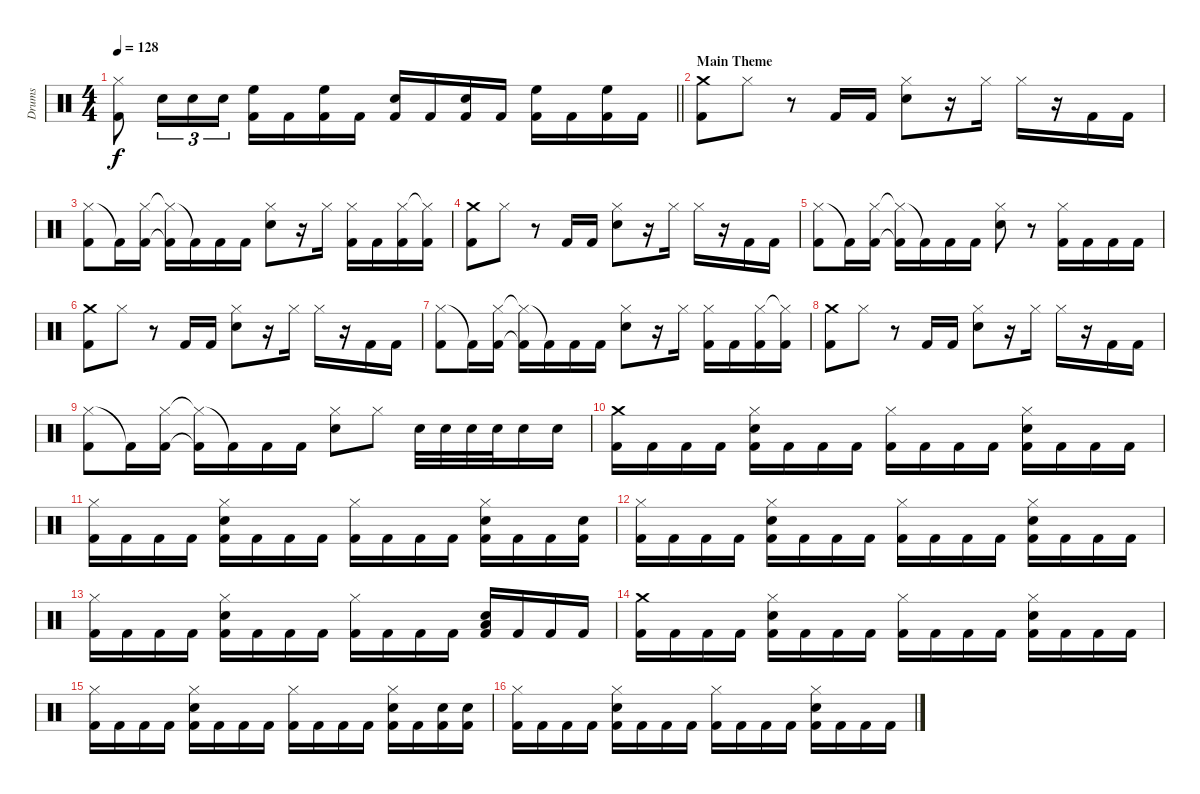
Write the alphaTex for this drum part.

\track ("Drums" "Drums") {instrument percussion}
\staff {score}
\articulation defaults
\ts (4 4)
\tempo 128
\clef neutral
\barLineRight lightlight
\ks c
("Hi-Hat (closed)" "Kick (hit) 2").8{dy f} "Snare (hit) 2".16{tu (3 2)} "Snare (hit) 2".16{tu (3 2)} "Snare (hit) 2".16{tu (3 2)} ("High Floor Tom (hit)" "Kick (hit) 2").16 "Kick (hit) 2".16 ("High Floor Tom (hit)" "Kick (hit) 2").16 "Kick (hit) 2".16 ("Snare (hit) 2" "Kick (hit) 2").16 "Kick (hit) 2".16 ("Snare (hit) 2" "Kick (hit) 2").16 "Kick (hit) 2".16 ("High Floor Tom (hit)" "Kick (hit) 2").16 "Kick (hit) 2".16 ("High Floor Tom (hit)" "Kick (hit) 2").16 "Kick (hit) 2".16 |
\section ("" "Main Theme")
("Crash medium (hit)" "Kick (hit) 2").8 "Hi-Hat (closed)".8 r.8 "Kick (hit) 2".16 "Kick (hit) 2".16 ("Hi-Hat (closed)" "Snare (hit) 2").8 r.16 "Hi-Hat (closed)".16 "Hi-Hat (closed)".16 r.16 "Kick (hit) 2".16 "Kick (hit) 2".16 |
("Hi-Hat (closed)" "Kick (hit) 2").8 "Kick (hit) 2"{t}.16 ("Hi-Hat (closed)" "Kick (hit) 2").16 ("Hi-Hat (closed)"{t} "Kick (hit) 2"{t}).16 "Kick (hit) 2"{t}.16 "Kick (hit) 2".16 "Kick (hit) 2".16 ("Hi-Hat (closed)" "Snare (hit) 2").8 r.16 "Hi-Hat (closed)".16 ("Hi-Hat (closed)" "Kick (hit) 2").16 "Kick (hit) 2".16 ("Hi-Hat (closed)" "Kick (hit) 2").16 ("Hi-Hat (closed)"{t} "Kick (hit) 2").16 |
("Crash medium (hit)" "Kick (hit) 2").8 "Hi-Hat (closed)".8 r.8 "Kick (hit) 2".16 "Kick (hit) 2".16 ("Hi-Hat (closed)" "Snare (hit) 2").8 r.16 "Hi-Hat (closed)".16 "Hi-Hat (closed)".16 r.16 "Kick (hit) 2".16 "Kick (hit) 2".16 |
("Hi-Hat (closed)" "Kick (hit) 2").8 "Kick (hit) 2"{t}.16 ("Hi-Hat (closed)" "Kick (hit) 2").16 ("Hi-Hat (closed)"{t} "Kick (hit) 2"{t}).16 "Kick (hit) 2"{t}.16 "Kick (hit) 2".16 "Kick (hit) 2".16 ("Hi-Hat (closed)" "Snare (hit) 2").8 r.8 ("Hi-Hat (closed)" "Kick (hit) 2").16 "Kick (hit) 2".16 "Kick (hit) 2".16 "Kick (hit) 2".16 |
("Crash medium (hit)" "Kick (hit) 2").8 "Hi-Hat (closed)".8 r.8 "Kick (hit) 2".16 "Kick (hit) 2".16 ("Hi-Hat (closed)" "Snare (hit) 2").8 r.16 "Hi-Hat (closed)".16 "Hi-Hat (closed)".16 r.16 "Kick (hit) 2".16 "Kick (hit) 2".16 |
("Hi-Hat (closed)" "Kick (hit) 2").8 "Kick (hit) 2"{t}.16 ("Hi-Hat (closed)" "Kick (hit) 2").16 ("Hi-Hat (closed)"{t} "Kick (hit) 2"{t}).16 "Kick (hit) 2"{t}.16 "Kick (hit) 2".16 "Kick (hit) 2".16 ("Hi-Hat (closed)" "Snare (hit) 2").8 r.16 "Hi-Hat (closed)".16 ("Hi-Hat (closed)" "Kick (hit) 2").16 "Kick (hit) 2".16 ("Hi-Hat (closed)" "Kick (hit) 2").16 ("Hi-Hat (closed)"{t} "Kick (hit) 2").16 |
("Crash medium (hit)" "Kick (hit) 2").8 "Hi-Hat (closed)".8 r.8 "Kick (hit) 2".16 "Kick (hit) 2".16 ("Hi-Hat (closed)" "Snare (hit) 2").8 r.16 "Hi-Hat (closed)".16 "Hi-Hat (closed)".16 r.16 "Kick (hit) 2".16 "Kick (hit) 2".16 |
("Hi-Hat (closed)" "Kick (hit) 2").8 "Kick (hit) 2"{t}.16 ("Hi-Hat (closed)" "Kick (hit) 2").16 ("Hi-Hat (closed)"{t} "Kick (hit) 2"{t}).16 "Kick (hit) 2"{t}.16 "Kick (hit) 2".16 "Kick (hit) 2".16 ("Hi-Hat (closed)" "Snare (hit) 2").8 "Hi-Hat (closed)".8 "Snare (hit) 2".32 "Snare (hit) 2".32 "Snare (hit) 2".32 "Snare (hit) 2".32 "Snare (hit) 2".16 "Snare (hit) 2".16 |
("Crash medium (hit)" "Kick (hit) 2").16 "Kick (hit) 2".16 "Kick (hit) 2".16 "Kick (hit) 2".16 ("Hi-Hat (closed)" "Snare (hit) 2" "Kick (hit) 2").16 "Kick (hit) 2".16 "Kick (hit) 2".16 "Kick (hit) 2".16 ("Hi-Hat (closed)" "Kick (hit) 2").16 "Kick (hit) 2".16 "Kick (hit) 2".16 "Kick (hit) 2".16 ("Hi-Hat (closed)" "Snare (hit) 2" "Kick (hit) 2").16 "Kick (hit) 2".16 "Kick (hit) 2".16 "Kick (hit) 2".16 |
("Hi-Hat (closed)" "Kick (hit) 2").16 "Kick (hit) 2".16 "Kick (hit) 2".16 "Kick (hit) 2".16 ("Hi-Hat (closed)" "Snare (hit) 2" "Kick (hit) 2").16 "Kick (hit) 2".16 "Kick (hit) 2".16 "Kick (hit) 2".16 ("Hi-Hat (closed)" "Kick (hit) 2").16 "Kick (hit) 2".16 "Kick (hit) 2".16 "Kick (hit) 2".16 ("Hi-Hat (closed)" "Snare (hit) 2" "Kick (hit) 2").16 "Kick (hit) 2".16 "Kick (hit) 2".16 ("Snare (hit) 2" "Kick (hit) 2").16 |
("Hi-Hat (closed)" "Kick (hit) 2").16 "Kick (hit) 2".16 "Kick (hit) 2".16 "Kick (hit) 2".16 ("Hi-Hat (closed)" "Snare (hit) 2" "Kick (hit) 2").16 "Kick (hit) 2".16 "Kick (hit) 2".16 "Kick (hit) 2".16 ("Hi-Hat (closed)" "Kick (hit) 2").16 "Kick (hit) 2".16 "Kick (hit) 2".16 "Kick (hit) 2".16 ("Hi-Hat (closed)" "Snare (hit) 2" "Kick (hit) 2").16 "Kick (hit) 2".16 "Kick (hit) 2".16 "Kick (hit) 2".16 |
("Hi-Hat (closed)" "Kick (hit) 2").16 "Kick (hit) 2".16 "Kick (hit) 2".16 "Kick (hit) 2".16 ("Hi-Hat (closed)" "Snare (hit) 2" "Kick (hit) 2").16 "Kick (hit) 2".16 "Kick (hit) 2".16 "Kick (hit) 2".16 ("Hi-Hat (closed)" "Kick (hit) 2").16 "Kick (hit) 2".16 "Kick (hit) 2".16 "Kick (hit) 2".16 ("Low Tom (hit)" "Snare (hit) 2" "Kick (hit) 2").16 "Kick (hit) 2".16 "Kick (hit) 2".16 "Kick (hit) 2".16 |
("Crash medium (hit)" "Kick (hit) 2").16 "Kick (hit) 2".16 "Kick (hit) 2".16 "Kick (hit) 2".16 ("Hi-Hat (closed)" "Snare (hit) 2" "Kick (hit) 2").16 "Kick (hit) 2".16 "Kick (hit) 2".16 "Kick (hit) 2".16 ("Hi-Hat (closed)" "Kick (hit) 2").16 "Kick (hit) 2".16 "Kick (hit) 2".16 "Kick (hit) 2".16 ("Hi-Hat (closed)" "Snare (hit) 2" "Kick (hit) 2").16 "Kick (hit) 2".16 "Kick (hit) 2".16 "Kick (hit) 2".16 |
("Hi-Hat (closed)" "Kick (hit) 2").16 "Kick (hit) 2".16 "Kick (hit) 2".16 "Kick (hit) 2".16 ("Hi-Hat (closed)" "Snare (hit) 2" "Kick (hit) 2").16 "Kick (hit) 2".16 "Kick (hit) 2".16 "Kick (hit) 2".16 ("Hi-Hat (closed)" "Kick (hit) 2").16 "Kick (hit) 2".16 "Kick (hit) 2".16 "Kick (hit) 2".16 ("Hi-Hat (closed)" "Snare (hit) 2" "Kick (hit) 2").16 "Kick (hit) 2".16 ("Snare (hit) 2" "Kick (hit) 2").16 ("Snare (hit) 2" "Kick (hit) 2").16 |
("Hi-Hat (closed)" "Kick (hit) 2").16 "Kick (hit) 2".16 "Kick (hit) 2".16 "Kick (hit) 2".16 ("Hi-Hat (closed)" "Snare (hit) 2" "Kick (hit) 2").16 "Kick (hit) 2".16 "Kick (hit) 2".16 "Kick (hit) 2".16 ("Hi-Hat (closed)" "Kick (hit) 2").16 "Kick (hit) 2".16 "Kick (hit) 2".16 "Kick (hit) 2".16 ("Hi-Hat (closed)" "Snare (hit) 2" "Kick (hit) 2").16 "Kick (hit) 2".16 "Kick (hit) 2".16 "Kick (hit) 2".16
